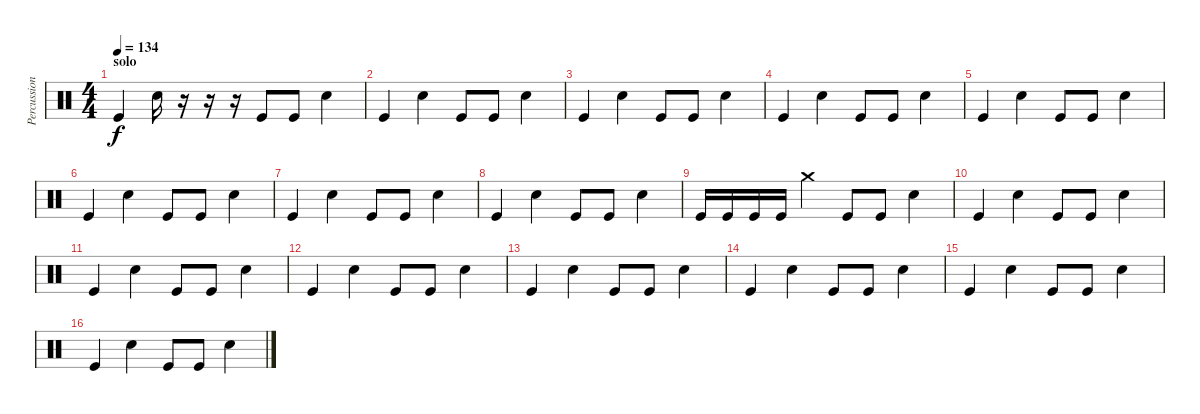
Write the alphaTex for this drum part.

\track ("Percussion" "Percussion") {instrument percussion}
\staff {score}
\articulation defaults
\ts (4 4)
\section ("" "solo")
\tempo 134
\clef neutral
\ks c "Kick (hit)".4{dy f} "Snare (hit) 2".16
r.16 r.16 r.16 "Kick (hit)".8 "Kick (hit)".8 "Snare (hit) 2".4 |
"Kick (hit)".4 "Snare (hit) 2".4 "Kick (hit)".8 "Kick (hit)".8 "Snare (hit) 2".4 |
"Kick (hit)".4 "Snare (hit) 2".4 "Kick (hit)".8 "Kick (hit)".8 "Snare (hit) 2".4 |
"Kick (hit)".4 "Snare (hit) 2".4 "Kick (hit)".8 "Kick (hit)".8 "Snare (hit) 2".4 |
"Kick (hit)".4 "Snare (hit) 2".4 "Kick (hit)".8 "Kick (hit)".8 "Snare (hit) 2".4 |
"Kick (hit)".4 "Snare (hit) 2".4 "Kick (hit)".8 "Kick (hit)".8 "Snare (hit) 2".4 |
"Kick (hit)".4 "Snare (hit) 2".4 "Kick (hit)".8 "Kick (hit)".8 "Snare (hit) 2".4 |
"Kick (hit)".4 "Snare (hit) 2".4 "Kick (hit)".8 "Kick (hit)".8 "Snare (hit) 2".4 |
"Kick (hit)".16 "Kick (hit)".16 "Kick (hit)".16 "Kick (hit)".16 "Crash medium (hit)".4 "Kick (hit)".8 "Kick (hit)".8 "Snare (hit) 2".4 |
"Kick (hit)".4 "Snare (hit) 2".4 "Kick (hit)".8 "Kick (hit)".8 "Snare (hit) 2".4 |
"Kick (hit)".4 "Snare (hit) 2".4 "Kick (hit)".8 "Kick (hit)".8 "Snare (hit) 2".4 |
"Kick (hit)".4 "Snare (hit) 2".4 "Kick (hit)".8 "Kick (hit)".8 "Snare (hit) 2".4 |
"Kick (hit)".4 "Snare (hit) 2".4 "Kick (hit)".8 "Kick (hit)".8 "Snare (hit) 2".4 |
"Kick (hit)".4 "Snare (hit) 2".4 "Kick (hit)".8 "Kick (hit)".8 "Snare (hit) 2".4 |
"Kick (hit)".4 "Snare (hit) 2".4 "Kick (hit)".8 "Kick (hit)".8 "Snare (hit) 2".4 |
"Kick (hit)".4 "Snare (hit) 2".4 "Kick (hit)".8 "Kick (hit)".8 "Snare (hit) 2".4
